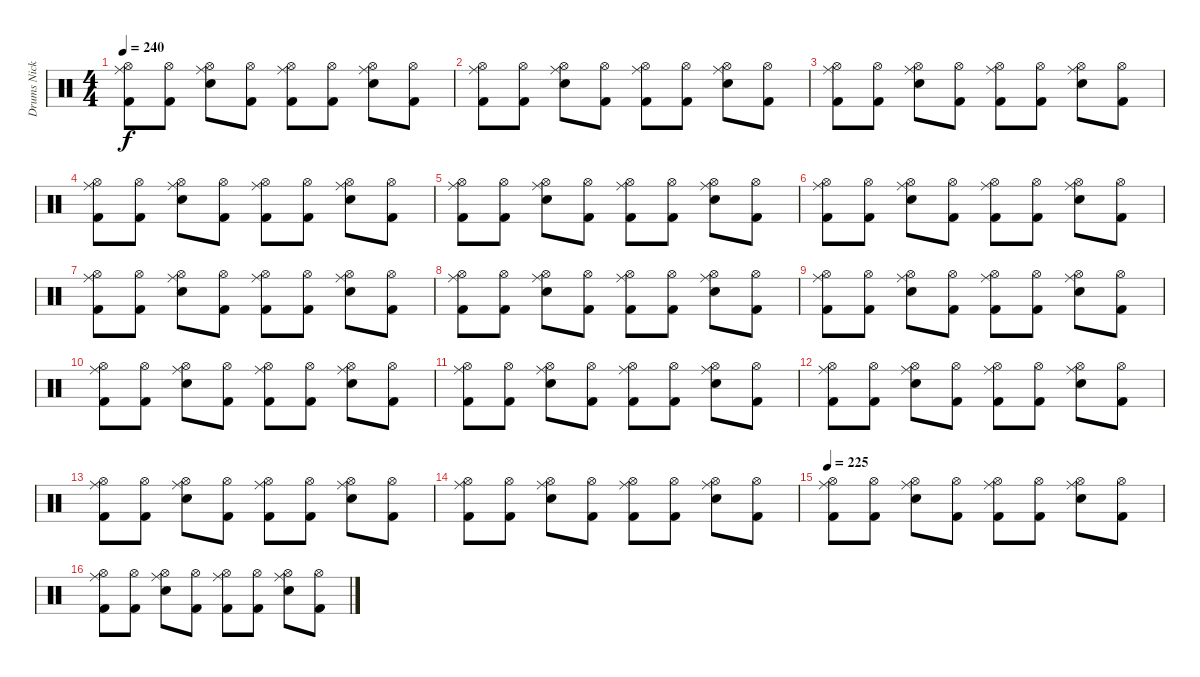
\track ("Drums Nicko McBrain" "Drums Nick") {instrument percussion}
\staff {score}
\articulation defaults
\ts (4 4)
\tempo 240
\clef neutral
\ks c
("Hi-Hat (open)" "Ride (middle)" "Kick (hit) 2").8{dy f} ("Hi-Hat (open)" "Kick (hit) 2").8 ("Hi-Hat (open)" "Ride (middle)" "Snare (hit) 2").8 ("Hi-Hat (open)" "Kick (hit) 2").8 ("Hi-Hat (open)" "Ride (middle)" "Kick (hit) 2").8 ("Hi-Hat (open)" "Kick (hit) 2").8 ("Hi-Hat (open)" "Ride (middle)" "Snare (hit) 2").8 ("Hi-Hat (open)" "Kick (hit) 2").8 |
("Hi-Hat (open)" "Ride (middle)" "Kick (hit) 2").8 ("Hi-Hat (open)" "Kick (hit) 2").8 ("Hi-Hat (open)" "Ride (middle)" "Snare (hit) 2").8 ("Hi-Hat (open)" "Kick (hit) 2").8 ("Hi-Hat (open)" "Ride (middle)" "Kick (hit) 2").8 ("Hi-Hat (open)" "Kick (hit) 2").8 ("Hi-Hat (open)" "Ride (middle)" "Snare (hit) 2").8 ("Hi-Hat (open)" "Kick (hit) 2").8 |
("Hi-Hat (open)" "Ride (middle)" "Kick (hit) 2").8 ("Hi-Hat (open)" "Kick (hit) 2").8 ("Hi-Hat (open)" "Ride (middle)" "Snare (hit) 2").8 ("Hi-Hat (open)" "Kick (hit) 2").8 ("Hi-Hat (open)" "Ride (middle)" "Kick (hit) 2").8 ("Hi-Hat (open)" "Kick (hit) 2").8 ("Hi-Hat (open)" "Ride (middle)" "Snare (hit) 2").8 ("Hi-Hat (open)" "Kick (hit) 2").8 |
("Hi-Hat (open)" "Ride (middle)" "Kick (hit) 2").8 ("Hi-Hat (open)" "Kick (hit) 2").8 ("Hi-Hat (open)" "Ride (middle)" "Snare (hit) 2").8 ("Hi-Hat (open)" "Kick (hit) 2").8 ("Hi-Hat (open)" "Ride (middle)" "Kick (hit) 2").8 ("Hi-Hat (open)" "Kick (hit) 2").8 ("Hi-Hat (open)" "Ride (middle)" "Snare (hit) 2").8 ("Hi-Hat (open)" "Kick (hit) 2").8 |
("Hi-Hat (open)" "Ride (middle)" "Kick (hit) 2").8 ("Hi-Hat (open)" "Kick (hit) 2").8 ("Hi-Hat (open)" "Ride (middle)" "Snare (hit) 2").8 ("Hi-Hat (open)" "Kick (hit) 2").8 ("Hi-Hat (open)" "Ride (middle)" "Kick (hit) 2").8 ("Hi-Hat (open)" "Kick (hit) 2").8 ("Hi-Hat (open)" "Ride (middle)" "Snare (hit) 2").8 ("Hi-Hat (open)" "Kick (hit) 2").8 |
("Hi-Hat (open)" "Ride (middle)" "Kick (hit) 2").8 ("Hi-Hat (open)" "Kick (hit) 2").8 ("Hi-Hat (open)" "Ride (middle)" "Snare (hit) 2").8 ("Hi-Hat (open)" "Kick (hit) 2").8 ("Hi-Hat (open)" "Ride (middle)" "Kick (hit) 2").8 ("Hi-Hat (open)" "Kick (hit) 2").8 ("Hi-Hat (open)" "Ride (middle)" "Snare (hit) 2").8 ("Hi-Hat (open)" "Kick (hit) 2").8 |
("Hi-Hat (open)" "Ride (middle)" "Kick (hit) 2").8 ("Hi-Hat (open)" "Kick (hit) 2").8 ("Hi-Hat (open)" "Ride (middle)" "Snare (hit) 2").8 ("Hi-Hat (open)" "Kick (hit) 2").8 ("Hi-Hat (open)" "Ride (middle)" "Kick (hit) 2").8 ("Hi-Hat (open)" "Kick (hit) 2").8 ("Hi-Hat (open)" "Ride (middle)" "Snare (hit) 2").8 ("Hi-Hat (open)" "Kick (hit) 2").8 |
("Hi-Hat (open)" "Ride (middle)" "Kick (hit) 2").8 ("Hi-Hat (open)" "Kick (hit) 2").8 ("Hi-Hat (open)" "Ride (middle)" "Snare (hit) 2").8 ("Hi-Hat (open)" "Kick (hit) 2").8 ("Hi-Hat (open)" "Ride (middle)" "Kick (hit) 2").8 ("Hi-Hat (open)" "Kick (hit) 2").8 ("Hi-Hat (open)" "Ride (middle)" "Snare (hit) 2").8 ("Hi-Hat (open)" "Kick (hit) 2").8 |
("Hi-Hat (open)" "Ride (middle)" "Kick (hit) 2").8 ("Hi-Hat (open)" "Kick (hit) 2").8 ("Hi-Hat (open)" "Ride (middle)" "Snare (hit) 2").8 ("Hi-Hat (open)" "Kick (hit) 2").8 ("Hi-Hat (open)" "Ride (middle)" "Kick (hit) 2").8 ("Hi-Hat (open)" "Kick (hit) 2").8 ("Hi-Hat (open)" "Ride (middle)" "Snare (hit) 2").8 ("Hi-Hat (open)" "Kick (hit) 2").8 |
("Hi-Hat (open)" "Ride (middle)" "Kick (hit) 2").8 ("Hi-Hat (open)" "Kick (hit) 2").8 ("Hi-Hat (open)" "Ride (middle)" "Snare (hit) 2").8 ("Hi-Hat (open)" "Kick (hit) 2").8 ("Hi-Hat (open)" "Ride (middle)" "Kick (hit) 2").8 ("Hi-Hat (open)" "Kick (hit) 2").8 ("Hi-Hat (open)" "Ride (middle)" "Snare (hit) 2").8 ("Hi-Hat (open)" "Kick (hit) 2").8 |
("Hi-Hat (open)" "Ride (middle)" "Kick (hit) 2").8 ("Hi-Hat (open)" "Kick (hit) 2").8 ("Hi-Hat (open)" "Ride (middle)" "Snare (hit) 2").8 ("Hi-Hat (open)" "Kick (hit) 2").8 ("Hi-Hat (open)" "Ride (middle)" "Kick (hit) 2").8 ("Hi-Hat (open)" "Kick (hit) 2").8 ("Hi-Hat (open)" "Ride (middle)" "Snare (hit) 2").8 ("Hi-Hat (open)" "Kick (hit) 2").8 |
("Hi-Hat (open)" "Ride (middle)" "Kick (hit) 2").8 ("Hi-Hat (open)" "Kick (hit) 2").8 ("Hi-Hat (open)" "Ride (middle)" "Snare (hit) 2").8 ("Hi-Hat (open)" "Kick (hit) 2").8 ("Hi-Hat (open)" "Ride (middle)" "Kick (hit) 2").8 ("Hi-Hat (open)" "Kick (hit) 2").8 ("Hi-Hat (open)" "Ride (middle)" "Snare (hit) 2").8 ("Hi-Hat (open)" "Kick (hit) 2").8 |
("Hi-Hat (open)" "Ride (middle)" "Kick (hit) 2").8 ("Hi-Hat (open)" "Kick (hit) 2").8 ("Hi-Hat (open)" "Ride (middle)" "Snare (hit) 2").8 ("Hi-Hat (open)" "Kick (hit) 2").8 ("Hi-Hat (open)" "Ride (middle)" "Kick (hit) 2").8 ("Hi-Hat (open)" "Kick (hit) 2").8 ("Hi-Hat (open)" "Ride (middle)" "Snare (hit) 2").8 ("Hi-Hat (open)" "Kick (hit) 2").8 |
("Hi-Hat (open)" "Ride (middle)" "Kick (hit) 2").8 ("Hi-Hat (open)" "Kick (hit) 2").8 ("Hi-Hat (open)" "Ride (middle)" "Snare (hit) 2").8 ("Hi-Hat (open)" "Kick (hit) 2").8 ("Hi-Hat (open)" "Ride (middle)" "Kick (hit) 2").8 ("Hi-Hat (open)" "Kick (hit) 2").8 ("Hi-Hat (open)" "Ride (middle)" "Snare (hit) 2").8 ("Hi-Hat (open)" "Kick (hit) 2").8 |
\tempo 225
("Hi-Hat (open)" "Ride (middle)" "Kick (hit) 2").8 ("Hi-Hat (open)" "Kick (hit) 2").8 ("Hi-Hat (open)" "Ride (middle)" "Snare (hit) 2").8 ("Hi-Hat (open)" "Kick (hit) 2").8 ("Hi-Hat (open)" "Ride (middle)" "Kick (hit) 2").8 ("Hi-Hat (open)" "Kick (hit) 2").8 ("Hi-Hat (open)" "Ride (middle)" "Snare (hit) 2").8 ("Hi-Hat (open)" "Kick (hit) 2").8 |
("Hi-Hat (open)" "Ride (middle)" "Kick (hit) 2").8 ("Hi-Hat (open)" "Kick (hit) 2").8 ("Hi-Hat (open)" "Ride (middle)" "Snare (hit) 2").8 ("Hi-Hat (open)" "Kick (hit) 2").8 ("Hi-Hat (open)" "Ride (middle)" "Kick (hit) 2").8 ("Hi-Hat (open)" "Kick (hit) 2").8 ("Hi-Hat (open)" "Ride (middle)" "Snare (hit) 2").8 ("Hi-Hat (open)" "Kick (hit) 2").8
